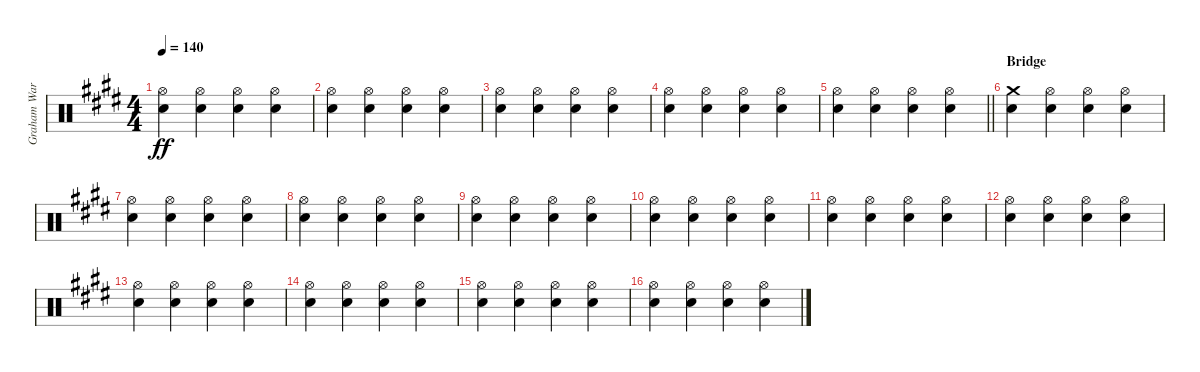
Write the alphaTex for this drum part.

\track ("Graham Ward (Drums)" "Graham War") {instrument percussion}
\staff {score}
\articulation defaults
\ts (4 4)
\tempo 140
\clef neutral
\ks e
("Snare (hit) 2" "Hi-Hat (open)").4{dy ff} ("Snare (hit) 2" "Hi-Hat (open)").4 ("Snare (hit) 2" "Hi-Hat (open)").4 ("Snare (hit) 2" "Hi-Hat (open)").4 |
("Snare (hit) 2" "Hi-Hat (open)").4 ("Snare (hit) 2" "Hi-Hat (open)").4 ("Snare (hit) 2" "Hi-Hat (open)").4 ("Snare (hit) 2" "Hi-Hat (open)").4 |
("Snare (hit) 2" "Hi-Hat (open)").4 ("Snare (hit) 2" "Hi-Hat (open)").4 ("Snare (hit) 2" "Hi-Hat (open)").4 ("Snare (hit) 2" "Hi-Hat (open)").4 |
("Snare (hit) 2" "Hi-Hat (open)").4 ("Snare (hit) 2" "Hi-Hat (open)").4 ("Snare (hit) 2" "Hi-Hat (open)").4 ("Snare (hit) 2" "Hi-Hat (open)").4 |
\barLineRight lightlight
("Snare (hit) 2" "Hi-Hat (open)").4 ("Snare (hit) 2" "Hi-Hat (open)").4 ("Snare (hit) 2" "Hi-Hat (open)").4 ("Snare (hit) 2" "Hi-Hat (open)").4 |
\section ("" "Bridge")
("Crash medium (hit)" "Snare (hit) 2").4 ("Snare (hit) 2" "Hi-Hat (open)").4 ("Snare (hit) 2" "Hi-Hat (open)").4 ("Snare (hit) 2" "Hi-Hat (open)").4 |
("Snare (hit) 2" "Hi-Hat (open)").4 ("Snare (hit) 2" "Hi-Hat (open)").4 ("Snare (hit) 2" "Hi-Hat (open)").4 ("Snare (hit) 2" "Hi-Hat (open)").4 |
("Snare (hit) 2" "Hi-Hat (open)").4 ("Snare (hit) 2" "Hi-Hat (open)").4 ("Snare (hit) 2" "Hi-Hat (open)").4 ("Snare (hit) 2" "Hi-Hat (open)").4 |
("Snare (hit) 2" "Hi-Hat (open)").4 ("Snare (hit) 2" "Hi-Hat (open)").4 ("Snare (hit) 2" "Hi-Hat (open)").4 ("Snare (hit) 2" "Hi-Hat (open)").4 |
("Snare (hit) 2" "Hi-Hat (open)").4 ("Snare (hit) 2" "Hi-Hat (open)").4 ("Snare (hit) 2" "Hi-Hat (open)").4 ("Snare (hit) 2" "Hi-Hat (open)").4 |
("Snare (hit) 2" "Hi-Hat (open)").4 ("Snare (hit) 2" "Hi-Hat (open)").4 ("Snare (hit) 2" "Hi-Hat (open)").4 ("Snare (hit) 2" "Hi-Hat (open)").4 |
("Snare (hit) 2" "Hi-Hat (open)").4 ("Snare (hit) 2" "Hi-Hat (open)").4 ("Snare (hit) 2" "Hi-Hat (open)").4 ("Snare (hit) 2" "Hi-Hat (open)").4 |
("Snare (hit) 2" "Hi-Hat (open)").4 ("Snare (hit) 2" "Hi-Hat (open)").4 ("Snare (hit) 2" "Hi-Hat (open)").4 ("Snare (hit) 2" "Hi-Hat (open)").4 |
("Snare (hit) 2" "Hi-Hat (open)").4 ("Snare (hit) 2" "Hi-Hat (open)").4 ("Snare (hit) 2" "Hi-Hat (open)").4 ("Snare (hit) 2" "Hi-Hat (open)").4 |
("Snare (hit) 2" "Hi-Hat (open)").4 ("Snare (hit) 2" "Hi-Hat (open)").4 ("Snare (hit) 2" "Hi-Hat (open)").4 ("Snare (hit) 2" "Hi-Hat (open)").4 |
("Snare (hit) 2" "Hi-Hat (open)").4 ("Snare (hit) 2" "Hi-Hat (open)").4 ("Snare (hit) 2" "Hi-Hat (open)").4 ("Snare (hit) 2" "Hi-Hat (open)").4
